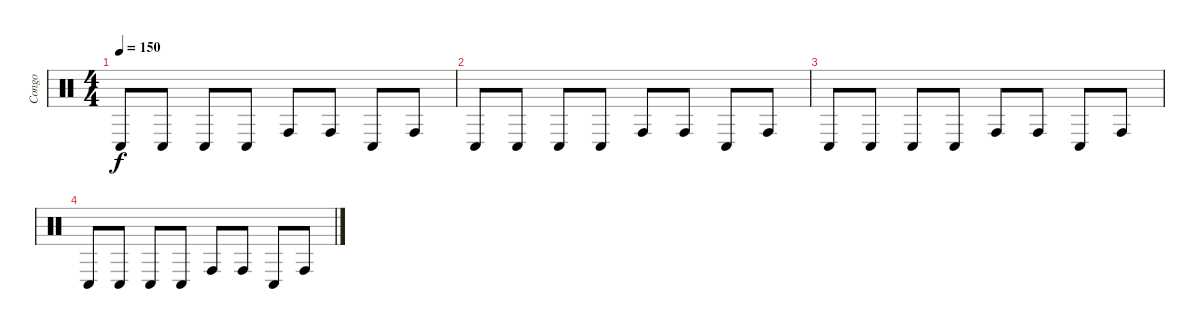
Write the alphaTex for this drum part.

\track ("Congo" "Congo") {instrument percussion}
\staff {score}
\articulation defaults
\ts (4 4)
\tempo 150
\clef neutral
\ks c "Conga low (hit)".8{dy f} "Conga low (hit)".8 "Conga low (hit)".8 "Conga low (hit)".8 "Conga high (hit)".8 "Conga high (hit)".8 "Conga low (hit)".8 "Conga high (hit)".8
|
"Conga low (hit)".8 "Conga low (hit)".8 "Conga low (hit)".8 "Conga low (hit)".8 "Conga high (hit)".8 "Conga high (hit)".8 "Conga low (hit)".8 "Conga high (hit)".8 |
"Conga low (hit)".8 "Conga low (hit)".8 "Conga low (hit)".8 "Conga low (hit)".8 "Conga high (hit)".8 "Conga high (hit)".8 "Conga low (hit)".8 "Conga high (hit)".8 |
"Conga low (hit)".8 "Conga low (hit)".8 "Conga low (hit)".8 "Conga low (hit)".8 "Conga high (hit)".8 "Conga high (hit)".8 "Conga low (hit)".8 "Conga high (hit)".8
